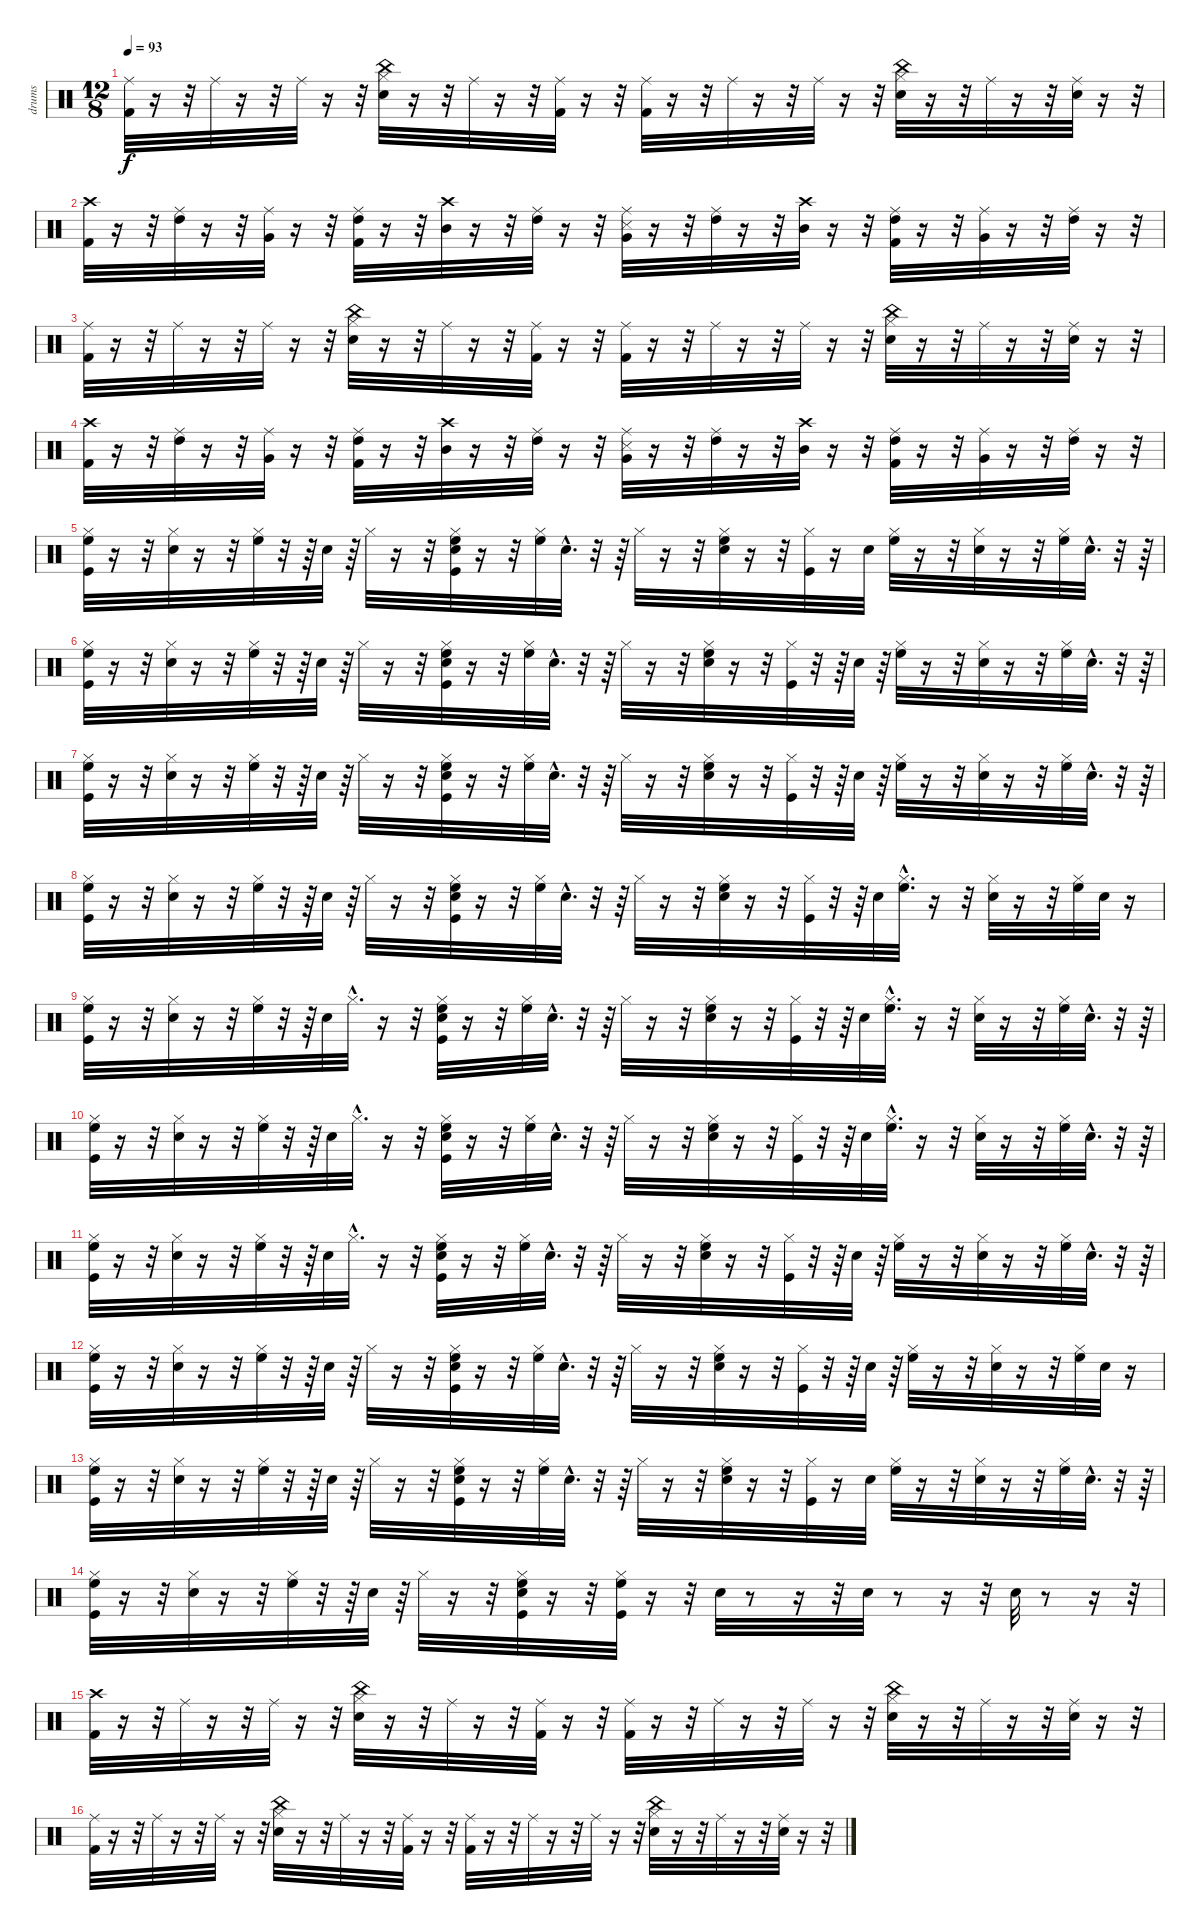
\track ("drums" "drums") {instrument percussion}
\staff {score}
\articulation defaults
\ts (12 8)
\tempo 93
\clef neutral
\ks c
("Kick (hit) 2" "Ride (middle)").32{dy f} r.16 r.32 "Ride (middle)".32 r.16 r.32 "Ride (middle)".32 r.16 r.32 ("China (hit)" "Hi-Hat (closed)" "Snare (hit) 2").32 r.16 r.32 "Ride (middle)".32 r.16 r.32 ("Ride (middle)" "Kick (hit) 2").32 r.16 r.32 ("Kick (hit) 2" "Ride (middle)").32 r.16 r.32 "Ride (middle)".32 r.16 r.32 "Ride (middle)".32 r.16 r.32 ("China (hit)" "Hi-Hat (closed)" "Snare (hit) 2").32 r.16 r.32 "Ride (middle)".32 r.16 r.32 ("Ride (middle)" "Snare (hit) 2").32 r.16 r.32 |
("Kick (hit) 2" "Crash high (hit)").32 r.16 r.32 ("Ride (middle)" "High Tom (hit)").32 r.16 r.32 ("Very Low Tom (hit)" "Ride (middle)").32 r.16 r.32 ("Ride (middle)" "Kick (hit) 2" "High Tom (hit)").32 r.16 r.32 ("Mid Tom (hit)" "Crash high (hit)").32 r.16 r.32 ("Ride (middle)" "High Tom (hit)").32 r.16 r.32 ("Very Low Tom (hit)" "Snare (side stick) 3" "Ride (middle)").32 r.16 r.32 ("Ride (middle)" "High Tom (hit)").32 r.16 r.32 ("Mid Tom (hit)" "Crash high (hit)").32 r.16 r.32 ("Ride (middle)" "Kick (hit) 2" "High Tom (hit)").32 r.16 r.32 ("Very Low Tom (hit)" "Ride (middle)").32 r.16 r.32 ("Ride (middle)" "High Tom (hit)").32 r.16 r.32 |
("Kick (hit) 2" "Ride (middle)").32 r.16 r.32 "Ride (middle)".32 r.16 r.32 "Ride (middle)".32 r.16 r.32 ("China (hit)" "Hi-Hat (closed)" "Snare (hit) 2").32 r.16 r.32 "Ride (middle)".32 r.16 r.32 ("Ride (middle)" "Kick (hit) 2").32 r.16 r.32 ("Kick (hit) 2" "Ride (middle)").32 r.16 r.32 "Ride (middle)".32 r.16 r.32 "Ride (middle)".32 r.16 r.32 ("China (hit)" "Hi-Hat (closed)" "Snare (hit) 2").32 r.16 r.32 "Ride (middle)".32 r.16 r.32 ("Ride (middle)" "Snare (hit) 2").32 r.16 r.32 |
("Kick (hit) 2" "Crash high (hit)").32 r.16 r.32 ("Ride (middle)" "High Tom (hit)").32 r.16 r.32 ("Very Low Tom (hit)" "Ride (middle)").32 r.16 r.32 ("Ride (middle)" "Kick (hit) 2" "High Tom (hit)").32 r.16 r.32 ("Mid Tom (hit)" "Crash high (hit)").32 r.16 r.32 ("Ride (middle)" "High Tom (hit)").32 r.16 r.32 ("Very Low Tom (hit)" "Snare (side stick) 3" "Ride (middle)").32 r.16 r.32 ("Ride (middle)" "High Tom (hit)").32 r.16 r.32 ("Mid Tom (hit)" "Crash high (hit)").32 r.16 r.32 ("Ride (middle)" "Kick (hit) 2" "High Tom (hit)").32 r.16 r.32 ("Very Low Tom (hit)" "Ride (middle)").32 r.16 r.32 ("Ride (middle)" "High Tom (hit)").32 r.16 r.32 |
("High Floor Tom (hit)" "Kick (hit)" "Hi-Hat (closed)").32 r.16 r.32 ("Hi-Hat (closed)" "Snare (hit) 2").32 r.16 r.32 ("High Floor Tom (hit)" "Hi-Hat (closed)").32 r.32 r.64 "Electric Snare (hit)".32 r.64 "Hi-Hat (closed)".32 r.16 r.32 ("High Floor Tom (hit)" "Kick (hit)" "Snare (hit) 2" "Hi-Hat (closed)").32 r.16 r.32 ("Hi-Hat (closed)" "High Floor Tom (hit)").32 "Electric Snare (hit)"{hac}.32{d} r.32 r.64 "Hi-Hat (closed)".32 r.16 r.32 ("Hi-Hat (closed)" "Snare (hit) 2" "High Floor Tom (hit)").32 r.16 r.32 ("Kick (hit)" "Hi-Hat (closed)").32 r.16 "Electric Snare (hit)".32 ("Hi-Hat (closed)" "High Floor Tom (hit)").32 r.16 r.32 ("Snare (hit) 2" "Hi-Hat (closed)").32 r.16 r.32 ("Hi-Hat (closed)" "High Floor Tom (hit)").32 "Electric Snare (hit)"{hac}.32{d} r.32 r.64 |
("High Floor Tom (hit)" "Kick (hit)" "Hi-Hat (closed)").32 r.16 r.32 ("Hi-Hat (closed)" "Snare (hit) 2").32 r.16 r.32 ("High Floor Tom (hit)" "Hi-Hat (closed)").32 r.32 r.64 "Electric Snare (hit)".32 r.64 "Hi-Hat (closed)".32 r.16 r.32 ("High Floor Tom (hit)" "Kick (hit)" "Snare (hit) 2" "Hi-Hat (closed)").32 r.16 r.32 ("Hi-Hat (closed)" "High Floor Tom (hit)").32 "Electric Snare (hit)"{hac}.32{d} r.32 r.64 "Hi-Hat (closed)".32 r.16 r.32 ("Hi-Hat (closed)" "Snare (hit) 2" "High Floor Tom (hit)").32 r.16 r.32 ("Kick (hit)" "Hi-Hat (closed)").32 r.32 r.64 "Electric Snare (hit)".32 r.64 ("Hi-Hat (closed)" "High Floor Tom (hit)").32 r.16 r.32 ("Snare (hit) 2" "Hi-Hat (closed)").32 r.16 r.32 ("Hi-Hat (closed)" "High Floor Tom (hit)").32 "Electric Snare (hit)"{hac}.32{d} r.32 r.64 |
("High Floor Tom (hit)" "Kick (hit)" "Hi-Hat (closed)").32 r.16 r.32 ("Hi-Hat (closed)" "Snare (hit) 2").32 r.16 r.32 ("High Floor Tom (hit)" "Hi-Hat (closed)").32 r.32 r.64 "Electric Snare (hit)".32 r.64 "Hi-Hat (closed)".32 r.16 r.32 ("High Floor Tom (hit)" "Kick (hit)" "Snare (hit) 2" "Hi-Hat (closed)").32 r.16 r.32 ("Hi-Hat (closed)" "High Floor Tom (hit)").32 "Electric Snare (hit)"{hac}.32{d} r.32 r.64 "Hi-Hat (closed)".32 r.16 r.32 ("Hi-Hat (closed)" "Snare (hit) 2" "High Floor Tom (hit)").32 r.16 r.32 ("Kick (hit)" "Hi-Hat (closed)").32 r.32 r.64 "Electric Snare (hit)".32 r.64 ("Hi-Hat (closed)" "High Floor Tom (hit)").32 r.16 r.32 ("Snare (hit) 2" "Hi-Hat (closed)").32 r.16 r.32 ("Hi-Hat (closed)" "High Floor Tom (hit)").32 "Electric Snare (hit)"{hac}.32{d} r.32 r.64 |
("High Floor Tom (hit)" "Kick (hit)" "Hi-Hat (closed)").32 r.16 r.32 ("Hi-Hat (closed)" "Snare (hit) 2").32 r.16 r.32 ("High Floor Tom (hit)" "Hi-Hat (closed)").32 r.32 r.64 "Electric Snare (hit)".32 r.64 "Hi-Hat (closed)".32 r.16 r.32 ("High Floor Tom (hit)" "Kick (hit)" "Snare (hit) 2" "Hi-Hat (closed)").32 r.16 r.32 ("Hi-Hat (closed)" "High Floor Tom (hit)").32 "Electric Snare (hit)"{hac}.32{d} r.32 r.64 "Hi-Hat (closed)".32 r.16 r.32 ("Hi-Hat (closed)" "Snare (hit) 2" "High Floor Tom (hit)").32 r.16 r.32 ("Kick (hit)" "Hi-Hat (closed)").32 r.32 r.64 "Electric Snare (hit)".32 ("Hi-Hat (closed)"{hac} "High Floor Tom (hit)"{hac}).32{d} r.16 r.32 ("Snare (hit) 2" "Hi-Hat (closed)").32 r.16 r.32 ("Hi-Hat (closed)" "High Floor Tom (hit)").32 "Electric Snare (hit)".32 r.16 |
("High Floor Tom (hit)" "Kick (hit)" "Hi-Hat (closed)").32 r.16 r.32 ("Hi-Hat (closed)" "Snare (hit) 2").32 r.16 r.32 ("High Floor Tom (hit)" "Hi-Hat (closed)").32 r.32 r.64 "Electric Snare (hit)".32 "Hi-Hat (closed)"{hac}.32{d} r.16 r.32 ("High Floor Tom (hit)" "Kick (hit)" "Snare (hit) 2" "Hi-Hat (closed)").32 r.16 r.32 ("Hi-Hat (closed)" "High Floor Tom (hit)").32 "Electric Snare (hit)"{hac}.32{d} r.32 r.64 "Hi-Hat (closed)".32 r.16 r.32 ("Hi-Hat (closed)" "Snare (hit) 2" "High Floor Tom (hit)").32 r.16 r.32 ("Kick (hit)" "Hi-Hat (closed)").32 r.32 r.64 "Electric Snare (hit)".32 ("Hi-Hat (closed)"{hac} "High Floor Tom (hit)"{hac}).32{d} r.16 r.32 ("Snare (hit) 2" "Hi-Hat (closed)").32 r.16 r.32 ("Hi-Hat (closed)" "High Floor Tom (hit)").32 "Electric Snare (hit)"{hac}.32{d} r.32 r.64 |
("High Floor Tom (hit)" "Kick (hit)" "Hi-Hat (closed)").32 r.16 r.32 ("Hi-Hat (closed)" "Snare (hit) 2").32 r.16 r.32 ("High Floor Tom (hit)" "Hi-Hat (closed)").32 r.32 r.64 "Electric Snare (hit)".32 "Hi-Hat (closed)"{hac}.32{d} r.16 r.32 ("High Floor Tom (hit)" "Kick (hit)" "Snare (hit) 2" "Hi-Hat (closed)").32 r.16 r.32 ("Hi-Hat (closed)" "High Floor Tom (hit)").32 "Electric Snare (hit)"{hac}.32{d} r.32 r.64 "Hi-Hat (closed)".32 r.16 r.32 ("Hi-Hat (closed)" "Snare (hit) 2" "High Floor Tom (hit)").32 r.16 r.32 ("Kick (hit)" "Hi-Hat (closed)").32 r.32 r.64 "Electric Snare (hit)".32 ("Hi-Hat (closed)"{hac} "High Floor Tom (hit)"{hac}).32{d} r.16 r.32 ("Snare (hit) 2" "Hi-Hat (closed)").32 r.16 r.32 ("Hi-Hat (closed)" "High Floor Tom (hit)").32 "Electric Snare (hit)"{hac}.32{d} r.32 r.64 |
("High Floor Tom (hit)" "Kick (hit)" "Hi-Hat (closed)").32 r.16 r.32 ("Hi-Hat (closed)" "Snare (hit) 2").32 r.16 r.32 ("High Floor Tom (hit)" "Hi-Hat (closed)").32 r.32 r.64 "Electric Snare (hit)".32 "Hi-Hat (closed)"{hac}.32{d} r.16 r.32 ("High Floor Tom (hit)" "Kick (hit)" "Snare (hit) 2" "Hi-Hat (closed)").32 r.16 r.32 ("Hi-Hat (closed)" "High Floor Tom (hit)").32 "Electric Snare (hit)"{hac}.32{d} r.32 r.64 "Hi-Hat (closed)".32 r.16 r.32 ("Hi-Hat (closed)" "Snare (hit) 2" "High Floor Tom (hit)").32 r.16 r.32 ("Kick (hit)" "Hi-Hat (closed)").32 r.32 r.64 "Electric Snare (hit)".32 r.64 ("Hi-Hat (closed)" "High Floor Tom (hit)").32 r.16 r.32 ("Snare (hit) 2" "Hi-Hat (closed)").32 r.16 r.32 ("Hi-Hat (closed)" "High Floor Tom (hit)").32 "Electric Snare (hit)"{hac}.32{d} r.32 r.64 |
("High Floor Tom (hit)" "Kick (hit)" "Hi-Hat (closed)").32 r.16 r.32 ("Hi-Hat (closed)" "Snare (hit) 2").32 r.16 r.32 ("High Floor Tom (hit)" "Hi-Hat (closed)").32 r.32 r.64 "Electric Snare (hit)".32 r.64 "Hi-Hat (closed)".32 r.16 r.32 ("High Floor Tom (hit)" "Kick (hit)" "Snare (hit) 2" "Hi-Hat (closed)").32 r.16 r.32 ("Hi-Hat (closed)" "High Floor Tom (hit)").32 "Electric Snare (hit)"{hac}.32{d} r.32 r.64 "Hi-Hat (closed)".32 r.16 r.32 ("Hi-Hat (closed)" "Snare (hit) 2" "High Floor Tom (hit)").32 r.16 r.32 ("Kick (hit)" "Hi-Hat (closed)").32 r.32 r.64 "Electric Snare (hit)".32 r.64 ("Hi-Hat (closed)" "High Floor Tom (hit)").32 r.16 r.32 ("Snare (hit) 2" "Hi-Hat (closed)").32 r.16 r.32 ("Hi-Hat (closed)" "High Floor Tom (hit)").32 "Electric Snare (hit)".32 r.16 |
("High Floor Tom (hit)" "Kick (hit)" "Hi-Hat (closed)").32 r.16 r.32 ("Hi-Hat (closed)" "Snare (hit) 2").32 r.16 r.32 ("High Floor Tom (hit)" "Hi-Hat (closed)").32 r.32 r.64 "Electric Snare (hit)".32 r.64 "Hi-Hat (closed)".32 r.16 r.32 ("High Floor Tom (hit)" "Kick (hit)" "Snare (hit) 2" "Hi-Hat (closed)").32 r.16 r.32 ("Hi-Hat (closed)" "High Floor Tom (hit)").32 "Electric Snare (hit)"{hac}.32{d} r.32 r.64 "Hi-Hat (closed)".32 r.16 r.32 ("Hi-Hat (closed)" "Snare (hit) 2" "High Floor Tom (hit)").32 r.16 r.32 ("Kick (hit)" "Hi-Hat (closed)").32 r.16 "Electric Snare (hit)".32 ("Hi-Hat (closed)" "High Floor Tom (hit)").32 r.16 r.32 ("Snare (hit) 2" "Hi-Hat (closed)").32 r.16 r.32 ("Hi-Hat (closed)" "High Floor Tom (hit)").32 "Electric Snare (hit)"{hac}.32{d} r.32 r.64 |
("High Floor Tom (hit)" "Kick (hit)" "Hi-Hat (closed)").32 r.16 r.32 ("Hi-Hat (closed)" "Snare (hit) 2").32 r.16 r.32 ("High Floor Tom (hit)" "Hi-Hat (closed)").32 r.32 r.64 "Electric Snare (hit)".32 r.64 "Hi-Hat (closed)".32 r.16 r.32 ("High Floor Tom (hit)" "Kick (hit)" "Snare (hit) 2" "Hi-Hat (closed)").32 r.16 r.32 ("Kick (hit)" "Hi-Hat (closed)" "High Floor Tom (hit)").32 r.16 r.32 "Snare (hit) 2".32 r.8 r.16 r.32 "Snare (hit) 2".32 r.8 r.16 r.32 "Snare (hit) 2".32 r.8 r.16 r.32 |
("Kick (hit) 2" "Crash high (hit)").32 r.16 r.32 "Ride (middle)".32 r.16 r.32 "Ride (middle)".32 r.16 r.32 ("China (hit)" "Hi-Hat (closed)" "Snare (hit) 2").32 r.16 r.32 "Ride (middle)".32 r.16 r.32 ("Ride (middle)" "Kick (hit) 2").32 r.16 r.32 ("Kick (hit) 2" "Ride (middle)").32 r.16 r.32 "Ride (middle)".32 r.16 r.32 "Ride (middle)".32 r.16 r.32 ("China (hit)" "Hi-Hat (closed)" "Snare (hit) 2").32 r.16 r.32 "Ride (middle)".32 r.16 r.32 ("Ride (middle)" "Snare (hit) 2").32 r.16 r.32 |
("Kick (hit) 2" "Ride (middle)").32 r.16 r.32 "Ride (middle)".32 r.16 r.32 "Ride (middle)".32 r.16 r.32 ("China (hit)" "Hi-Hat (closed)" "Snare (hit) 2").32 r.16 r.32 "Ride (middle)".32 r.16 r.32 ("Ride (middle)" "Kick (hit) 2").32 r.16 r.32 ("Kick (hit) 2" "Ride (middle)").32 r.16 r.32 "Ride (middle)".32 r.16 r.32 "Ride (middle)".32 r.16 r.32 ("China (hit)" "Hi-Hat (closed)" "Snare (hit) 2").32 r.16 r.32 "Ride (middle)".32 r.16 r.32 ("Ride (middle)" "Snare (hit) 2").32 r.16 r.32
